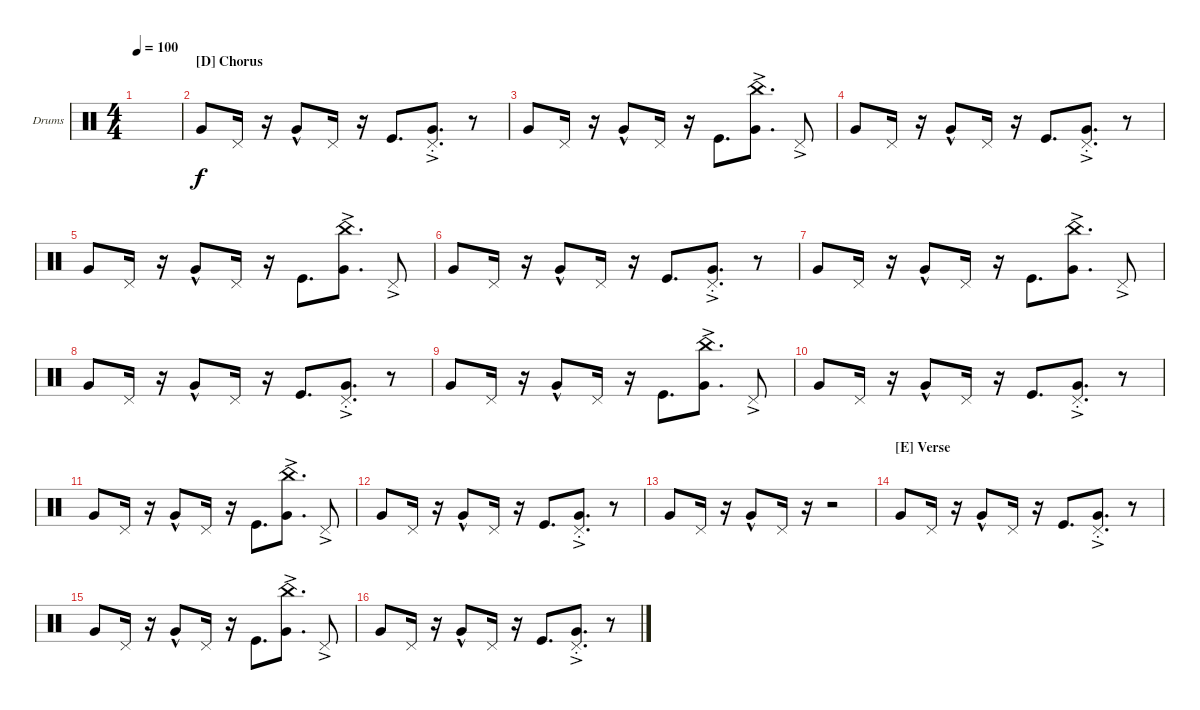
\defaultSystemsLayout 4
\bracketExtendMode groupsimilarinstruments
\firstSystemTrackNameOrientation horizontal
\otherSystemsTrackNameOrientation horizontal
\track ("Drumkit" "Drums") {instrument percussion}
\staff {score}
\articulation defaults
\ts (4 4)
\tempo 100
\clef neutral
\ks c
|
\section ("D" "Chorus")
"Very Low Tom (hit)".8 "Pedal Hi-Hat (hit)".16 r.16 "Very Low Tom (hit)"{hac}.8 "Pedal Hi-Hat (hit)".16 r.16 "Kick (hit)".8{d} ("Very Low Tom (hit)"{ac st} "Pedal Hi-Hat (hit)"{ac st}).8{d} r.8 |
"Very Low Tom (hit)".8 "Pedal Hi-Hat (hit)".16 r.16 "Very Low Tom (hit)"{hac}.8 "Pedal Hi-Hat (hit)".16 r.16 "Kick (hit)".8{d} ("China (hit)"{ac} "Very Low Tom (hit)"{ac}).8{d} "Pedal Hi-Hat (hit)"{ac}.8 |
"Very Low Tom (hit)".8 "Pedal Hi-Hat (hit)".16 r.16 "Very Low Tom (hit)"{hac}.8 "Pedal Hi-Hat (hit)".16 r.16 "Kick (hit)".8{d} ("Very Low Tom (hit)"{ac st} "Pedal Hi-Hat (hit)"{ac st}).8{d} r.8 |
"Very Low Tom (hit)".8 "Pedal Hi-Hat (hit)".16 r.16 "Very Low Tom (hit)"{hac}.8 "Pedal Hi-Hat (hit)".16 r.16 "Kick (hit)".8{d} ("China (hit)"{ac} "Very Low Tom (hit)"{ac}).8{d} "Pedal Hi-Hat (hit)"{ac}.8 |
"Very Low Tom (hit)".8 "Pedal Hi-Hat (hit)".16 r.16 "Very Low Tom (hit)"{hac}.8 "Pedal Hi-Hat (hit)".16 r.16 "Kick (hit)".8{d} ("Very Low Tom (hit)"{ac st} "Pedal Hi-Hat (hit)"{ac st}).8{d} r.8 |
"Very Low Tom (hit)".8 "Pedal Hi-Hat (hit)".16 r.16 "Very Low Tom (hit)"{hac}.8 "Pedal Hi-Hat (hit)".16 r.16 "Kick (hit)".8{d} ("China (hit)"{ac} "Very Low Tom (hit)"{ac}).8{d} "Pedal Hi-Hat (hit)"{ac}.8 |
"Very Low Tom (hit)".8 "Pedal Hi-Hat (hit)".16 r.16 "Very Low Tom (hit)"{hac}.8 "Pedal Hi-Hat (hit)".16 r.16 "Kick (hit)".8{d} ("Very Low Tom (hit)"{ac st} "Pedal Hi-Hat (hit)"{ac st}).8{d} r.8 |
"Very Low Tom (hit)".8 "Pedal Hi-Hat (hit)".16 r.16 "Very Low Tom (hit)"{hac}.8 "Pedal Hi-Hat (hit)".16 r.16 "Kick (hit)".8{d} ("China (hit)"{ac} "Very Low Tom (hit)"{ac}).8{d} "Pedal Hi-Hat (hit)"{ac}.8 |
"Very Low Tom (hit)".8 "Pedal Hi-Hat (hit)".16 r.16 "Very Low Tom (hit)"{hac}.8 "Pedal Hi-Hat (hit)".16 r.16 "Kick (hit)".8{d} ("Very Low Tom (hit)"{ac st} "Pedal Hi-Hat (hit)"{ac st}).8{d} r.8 |
"Very Low Tom (hit)".8 "Pedal Hi-Hat (hit)".16 r.16 "Very Low Tom (hit)"{hac}.8 "Pedal Hi-Hat (hit)".16 r.16 "Kick (hit)".8{d} ("China (hit)"{ac} "Very Low Tom (hit)"{ac}).8{d} "Pedal Hi-Hat (hit)"{ac}.8 |
"Very Low Tom (hit)".8 "Pedal Hi-Hat (hit)".16 r.16 "Very Low Tom (hit)"{hac}.8 "Pedal Hi-Hat (hit)".16 r.16 "Kick (hit)".8{d} ("Very Low Tom (hit)"{ac st} "Pedal Hi-Hat (hit)"{ac st}).8{d} r.8 |
"Very Low Tom (hit)".8 "Pedal Hi-Hat (hit)".16 r.16 "Very Low Tom (hit)"{hac}.8 "Pedal Hi-Hat (hit)".16 r.16 r.2 |
\section ("E" "Verse")
"Very Low Tom (hit)".8 "Pedal Hi-Hat (hit)".16 r.16 "Very Low Tom (hit)"{hac}.8 "Pedal Hi-Hat (hit)".16 r.16 "Kick (hit)".8{d} ("Very Low Tom (hit)"{ac st} "Pedal Hi-Hat (hit)"{ac st}).8{d} r.8 |
"Very Low Tom (hit)".8 "Pedal Hi-Hat (hit)".16 r.16 "Very Low Tom (hit)"{hac}.8 "Pedal Hi-Hat (hit)".16 r.16 "Kick (hit)".8{d} ("China (hit)"{ac} "Very Low Tom (hit)"{ac}).8{d} "Pedal Hi-Hat (hit)"{ac}.8 |
"Very Low Tom (hit)".8 "Pedal Hi-Hat (hit)".16 r.16 "Very Low Tom (hit)"{hac}.8 "Pedal Hi-Hat (hit)".16 r.16 "Kick (hit)".8{d} ("Very Low Tom (hit)"{ac st} "Pedal Hi-Hat (hit)"{ac st}).8{d} r.8
